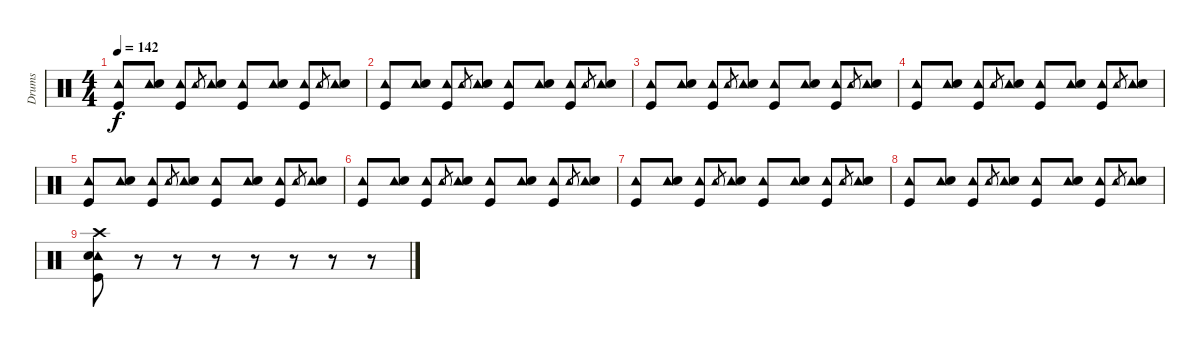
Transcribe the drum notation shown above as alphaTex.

\track ("Drums" "Drums") {instrument percussion}
\staff {score}
\articulation defaults
\ts (4 4)
\tempo 142
\clef neutral
\ks c
("Tambourine (hit)" "Kick (hit)").8{dy f} ("Tambourine (hit)" "Snare (hit) 2").8 ("Tambourine (hit)" "Kick (hit)").8 "Tambourine (hit)".8{gr} ("Tambourine (hit)" "Snare (hit) 2").8 ("Tambourine (hit)" "Kick (hit)").8 ("Tambourine (hit)" "Snare (hit) 2").8 ("Tambourine (hit)" "Kick (hit)").8 "Tambourine (hit)".8{gr} ("Tambourine (hit)" "Snare (hit) 2").8 |
("Tambourine (hit)" "Kick (hit)").8 ("Tambourine (hit)" "Snare (hit) 2").8 ("Tambourine (hit)" "Kick (hit)").8 "Tambourine (hit)".8{gr} ("Tambourine (hit)" "Snare (hit) 2").8 ("Tambourine (hit)" "Kick (hit)").8 ("Tambourine (hit)" "Snare (hit) 2").8 ("Tambourine (hit)" "Kick (hit)").8 "Tambourine (hit)".8{gr} ("Tambourine (hit)" "Snare (hit) 2").8 |
("Tambourine (hit)" "Kick (hit)").8 ("Tambourine (hit)" "Snare (hit) 2").8 ("Tambourine (hit)" "Kick (hit)").8 "Tambourine (hit)".8{gr} ("Tambourine (hit)" "Snare (hit) 2").8 ("Tambourine (hit)" "Kick (hit)").8 ("Tambourine (hit)" "Snare (hit) 2").8 ("Tambourine (hit)" "Kick (hit)").8 "Tambourine (hit)".8{gr} ("Tambourine (hit)" "Snare (hit) 2").8 |
("Tambourine (hit)" "Kick (hit)").8 ("Tambourine (hit)" "Snare (hit) 2").8 ("Tambourine (hit)" "Kick (hit)").8 "Tambourine (hit)".8{gr} ("Tambourine (hit)" "Snare (hit) 2").8 ("Tambourine (hit)" "Kick (hit)").8 ("Tambourine (hit)" "Snare (hit) 2").8 ("Tambourine (hit)" "Kick (hit)").8 "Tambourine (hit)".8{gr} ("Tambourine (hit)" "Snare (hit) 2").8 |
("Tambourine (hit)" "Kick (hit)").8 ("Tambourine (hit)" "Snare (hit) 2").8 ("Tambourine (hit)" "Kick (hit)").8 "Tambourine (hit)".8{gr} ("Tambourine (hit)" "Snare (hit) 2").8 ("Tambourine (hit)" "Kick (hit)").8 ("Tambourine (hit)" "Snare (hit) 2").8 ("Tambourine (hit)" "Kick (hit)").8 "Tambourine (hit)".8{gr} ("Tambourine (hit)" "Snare (hit) 2").8 |
("Tambourine (hit)" "Kick (hit)").8 ("Tambourine (hit)" "Snare (hit) 2").8 ("Tambourine (hit)" "Kick (hit)").8 "Tambourine (hit)".8{gr} ("Tambourine (hit)" "Snare (hit) 2").8 ("Tambourine (hit)" "Kick (hit)").8 ("Tambourine (hit)" "Snare (hit) 2").8 ("Tambourine (hit)" "Kick (hit)").8 "Tambourine (hit)".8{gr} ("Tambourine (hit)" "Snare (hit) 2").8 |
("Tambourine (hit)" "Kick (hit)").8 ("Tambourine (hit)" "Snare (hit) 2").8 ("Tambourine (hit)" "Kick (hit)").8 "Tambourine (hit)".8{gr} ("Tambourine (hit)" "Snare (hit) 2").8 ("Tambourine (hit)" "Kick (hit)").8 ("Tambourine (hit)" "Snare (hit) 2").8 ("Tambourine (hit)" "Kick (hit)").8 "Tambourine (hit)".8{gr} ("Tambourine (hit)" "Snare (hit) 2").8 |
("Tambourine (hit)" "Kick (hit)").8 ("Tambourine (hit)" "Snare (hit) 2").8 ("Tambourine (hit)" "Kick (hit)").8 "Tambourine (hit)".8{gr} ("Tambourine (hit)" "Snare (hit) 2").8 ("Tambourine (hit)" "Kick (hit)").8 ("Tambourine (hit)" "Snare (hit) 2").8 ("Tambourine (hit)" "Kick (hit)").8 "Tambourine (hit)".8{gr} ("Tambourine (hit)" "Snare (hit) 2").8 |
("Tambourine (hit)" "Crash high (hit)" "Snare (hit) 2" "Kick (hit)").8 r.8 r.8 r.8 r.8 r.8 r.8 r.8
